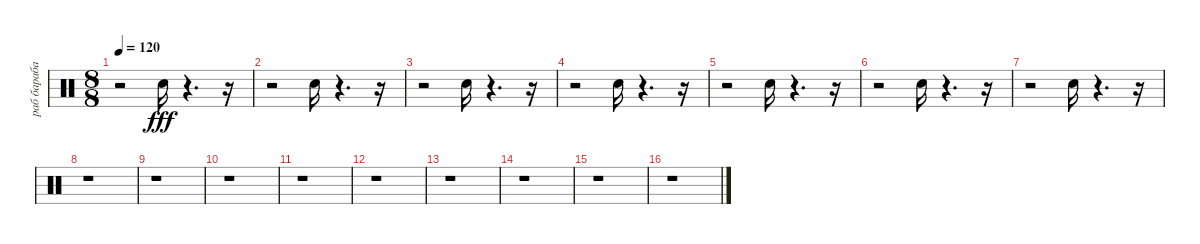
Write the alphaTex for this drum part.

\track ("раб барабан" "раб бараба") {instrument percussion}
\staff {score}
\articulation defaults
\ts (8 8)
\tempo 120
\clef neutral
\ks c
r.2{dy fff} "Snare (hit) 2".16 r.4{d} r.16 |
r.2 "Snare (hit) 2".16 r.4{d} r.16 |
r.2 "Snare (hit) 2".16 r.4{d} r.16 |
r.2 "Snare (hit) 2".16 r.4{d} r.16 |
r.2 "Snare (hit) 2".16 r.4{d} r.16 |
r.2 "Snare (hit) 2".16 r.4{d} r.16 |
r.2 "Snare (hit) 2".16 r.4{d} r.16 |
r.1 |
r.1 |
r.1 |
r.1 |
r.1 |
r.1 |
r.1 |
r.1 |
r.1
